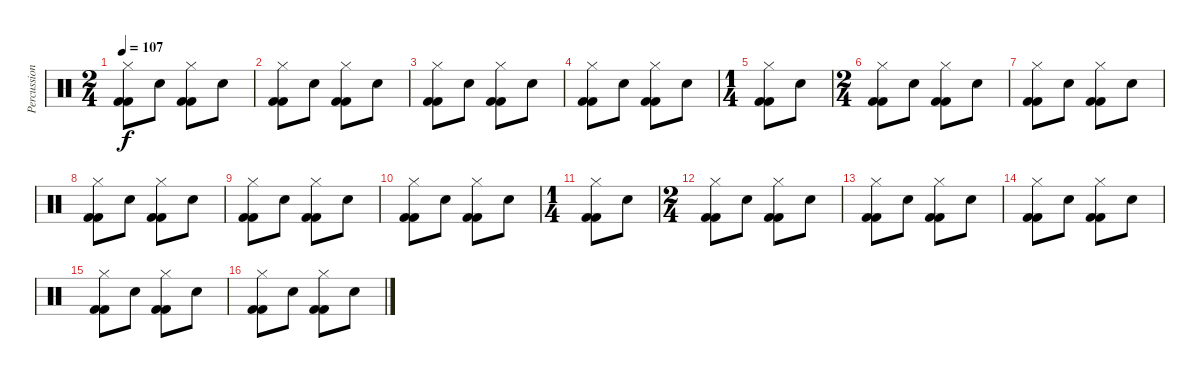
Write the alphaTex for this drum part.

\track ("Percussioni" "Percussion") {instrument percussion}
\staff {score}
\articulation defaults
\ts (2 4)
\tempo 107
\clef neutral
\ks c
("Hi-Hat (closed)" "Kick (hit) 2" "Kick (hit) 2").8{dy f} "Electric Snare (hit)".8 ("Hi-Hat (closed)" "Kick (hit) 2" "Kick (hit) 2").8 "Electric Snare (hit)".8 |
("Hi-Hat (closed)" "Kick (hit) 2" "Kick (hit) 2").8 "Electric Snare (hit)".8 ("Hi-Hat (closed)" "Kick (hit) 2" "Kick (hit) 2").8 "Electric Snare (hit)".8 |
("Hi-Hat (closed)" "Kick (hit) 2" "Kick (hit) 2").8 "Electric Snare (hit)".8 ("Hi-Hat (closed)" "Kick (hit) 2" "Kick (hit) 2").8 "Electric Snare (hit)".8 |
("Hi-Hat (closed)" "Kick (hit) 2" "Kick (hit) 2").8 "Electric Snare (hit)".8 ("Hi-Hat (closed)" "Kick (hit) 2" "Kick (hit) 2").8 "Electric Snare (hit)".8 |
\ts (1 4)
("Hi-Hat (closed)" "Kick (hit) 2" "Kick (hit) 2").8 "Electric Snare (hit)".8 |
\ts (2 4)
("Hi-Hat (closed)" "Kick (hit) 2" "Kick (hit) 2").8 "Electric Snare (hit)".8 ("Hi-Hat (closed)" "Kick (hit) 2" "Kick (hit) 2").8 "Electric Snare (hit)".8 |
("Hi-Hat (closed)" "Kick (hit) 2" "Kick (hit) 2").8 "Electric Snare (hit)".8 ("Hi-Hat (closed)" "Kick (hit) 2" "Kick (hit) 2").8 "Electric Snare (hit)".8 |
("Hi-Hat (closed)" "Kick (hit) 2" "Kick (hit) 2").8 "Electric Snare (hit)".8 ("Hi-Hat (closed)" "Kick (hit) 2" "Kick (hit) 2").8 "Electric Snare (hit)".8 |
("Hi-Hat (closed)" "Kick (hit) 2" "Kick (hit) 2").8 "Electric Snare (hit)".8 ("Hi-Hat (closed)" "Kick (hit) 2" "Kick (hit) 2").8 "Electric Snare (hit)".8 |
("Hi-Hat (closed)" "Kick (hit) 2" "Kick (hit) 2").8 "Electric Snare (hit)".8 ("Hi-Hat (closed)" "Kick (hit) 2" "Kick (hit) 2").8 "Electric Snare (hit)".8 |
\ts (1 4)
("Hi-Hat (closed)" "Kick (hit) 2" "Kick (hit) 2").8 "Electric Snare (hit)".8 |
\ts (2 4)
("Hi-Hat (closed)" "Kick (hit) 2" "Kick (hit) 2").8 "Electric Snare (hit)".8 ("Hi-Hat (closed)" "Kick (hit) 2" "Kick (hit) 2").8 "Electric Snare (hit)".8 |
("Hi-Hat (closed)" "Kick (hit) 2" "Kick (hit) 2").8 "Electric Snare (hit)".8 ("Hi-Hat (closed)" "Kick (hit) 2" "Kick (hit) 2").8 "Electric Snare (hit)".8 |
("Hi-Hat (closed)" "Kick (hit) 2" "Kick (hit) 2").8 "Electric Snare (hit)".8 ("Hi-Hat (closed)" "Kick (hit) 2" "Kick (hit) 2").8 "Electric Snare (hit)".8 |
("Hi-Hat (closed)" "Kick (hit) 2" "Kick (hit) 2").8 "Electric Snare (hit)".8 ("Hi-Hat (closed)" "Kick (hit) 2" "Kick (hit) 2").8 "Electric Snare (hit)".8 |
("Hi-Hat (closed)" "Kick (hit) 2" "Kick (hit) 2").8 "Electric Snare (hit)".8 ("Hi-Hat (closed)" "Kick (hit) 2" "Kick (hit) 2").8 "Electric Snare (hit)".8
